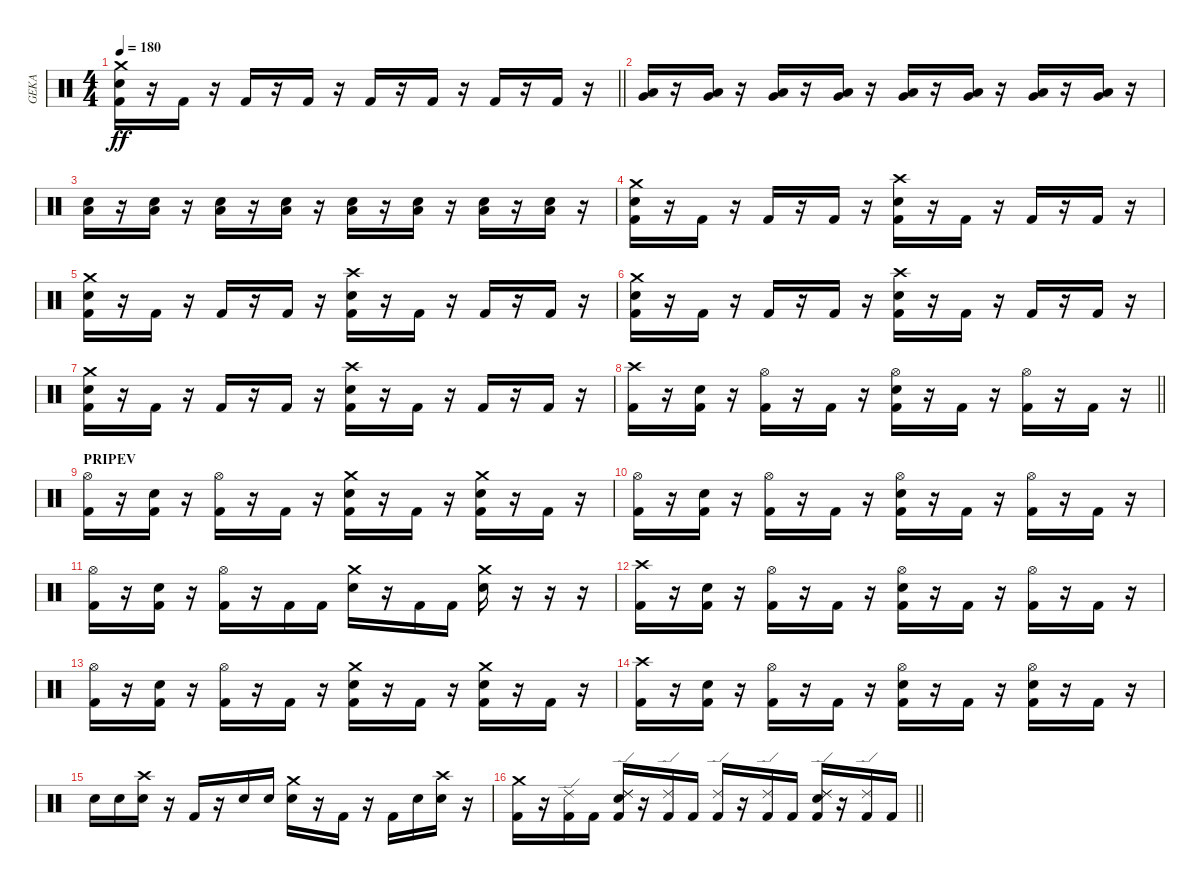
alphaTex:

\track ("GEKA" "GEKA") {instrument percussion}
\staff {score}
\articulation defaults
\ts (4 4)
\tempo 180
\clef neutral
\barLineRight lightlight
\ks c
("Crash medium (hit)" "Snare (hit) 2" "Kick (hit) 2").16{dy ff} r.16 "Kick (hit) 2".16 r.16 "Kick (hit) 2".16 r.16 "Kick (hit) 2".16 r.16 "Kick (hit) 2".16 r.16 "Kick (hit) 2".16 r.16 "Kick (hit) 2".16 r.16 "Kick (hit) 2".16 r.16 |
("Low Floor Tom (hit)" "Very Low Tom (hit)").16 r.16 ("Low Floor Tom (hit)" "Very Low Tom (hit)").16 r.16 ("Low Floor Tom (hit)" "Very Low Tom (hit)").16 r.16 ("Low Floor Tom (hit)" "Very Low Tom (hit)").16 r.16 ("Low Floor Tom (hit)" "Very Low Tom (hit)").16 r.16 ("Low Floor Tom (hit)" "Very Low Tom (hit)").16 r.16 ("Low Floor Tom (hit)" "Very Low Tom (hit)").16 r.16 ("Low Floor Tom (hit)" "Very Low Tom (hit)").16 r.16 |
("Snare (hit) 2" "Low Floor Tom (hit)").16 r.16 ("Snare (hit) 2" "Low Floor Tom (hit)").16 r.16 ("Snare (hit) 2" "Low Floor Tom (hit)").16 r.16 ("Snare (hit) 2" "Low Floor Tom (hit)").16 r.16 ("Snare (hit) 2" "Low Floor Tom (hit)").16 r.16 ("Snare (hit) 2" "Low Floor Tom (hit)").16 r.16 ("Snare (hit) 2" "Low Floor Tom (hit)").16 r.16 ("Snare (hit) 2" "Low Floor Tom (hit)").16 r.16 |
("Crash medium (hit)" "Snare (hit) 2" "Kick (hit) 2").16 r.16 "Kick (hit) 2".16 r.16 "Kick (hit) 2".16 r.16 "Kick (hit) 2".16 r.16 ("Crash high (hit)" "Snare (hit) 2" "Kick (hit) 2").16 r.16 "Kick (hit) 2".16 r.16 "Kick (hit) 2".16 r.16 "Kick (hit) 2".16 r.16 |
("Crash medium (hit)" "Snare (hit) 2" "Kick (hit) 2").16 r.16 "Kick (hit) 2".16 r.16 "Kick (hit) 2".16 r.16 "Kick (hit) 2".16 r.16 ("Crash high (hit)" "Snare (hit) 2" "Kick (hit) 2").16 r.16 "Kick (hit) 2".16 r.16 "Kick (hit) 2".16 r.16 "Kick (hit) 2".16 r.16 |
("Crash medium (hit)" "Snare (hit) 2" "Kick (hit) 2").16 r.16 "Kick (hit) 2".16 r.16 "Kick (hit) 2".16 r.16 "Kick (hit) 2".16 r.16 ("Crash high (hit)" "Snare (hit) 2" "Kick (hit) 2").16 r.16 "Kick (hit) 2".16 r.16 "Kick (hit) 2".16 r.16 "Kick (hit) 2".16 r.16 |
("Crash medium (hit)" "Snare (hit) 2" "Kick (hit) 2").16 r.16 "Kick (hit) 2".16 r.16 "Kick (hit) 2".16 r.16 "Kick (hit) 2".16 r.16 ("Crash high (hit)" "Snare (hit) 2" "Kick (hit) 2").16 r.16 "Kick (hit) 2".16 r.16 "Kick (hit) 2".16 r.16 "Kick (hit) 2".16 r.16 |
\barLineRight lightlight
("Crash high (hit)" "Kick (hit) 2").16 r.16 ("Snare (hit) 2" "Kick (hit) 2").16 r.16 ("Hi-Hat (open)" "Kick (hit) 2").16 r.16 "Kick (hit) 2".16 r.16 ("Hi-Hat (open)" "Snare (hit) 2" "Kick (hit) 2").16 r.16 "Kick (hit) 2".16 r.16 ("Hi-Hat (open)" "Kick (hit) 2").16 r.16 "Kick (hit) 2".16 r.16 |
\section ("" "PRIPEV")
("Hi-Hat (open)" "Kick (hit) 2").16 r.16 ("Snare (hit) 2" "Kick (hit) 2").16 r.16 ("Hi-Hat (open)" "Kick (hit) 2").16 r.16 "Kick (hit) 2".16 r.16 ("Crash medium (hit)" "Snare (hit) 2" "Kick (hit) 2").16 r.16 "Kick (hit) 2".16 r.16 ("Crash medium (hit)" "Snare (hit) 2" "Kick (hit) 2").16 r.16 "Kick (hit) 2".16 r.16 |
("Hi-Hat (open)" "Kick (hit) 2").16 r.16 ("Snare (hit) 2" "Kick (hit) 2").16 r.16 ("Hi-Hat (open)" "Kick (hit) 2").16 r.16 "Kick (hit) 2".16 r.16 ("Hi-Hat (open)" "Snare (hit) 2" "Kick (hit) 2").16 r.16 "Kick (hit) 2".16 r.16 ("Hi-Hat (open)" "Kick (hit) 2").16 r.16 "Kick (hit) 2".16 r.16 |
("Hi-Hat (open)" "Kick (hit) 2").16 r.16 ("Snare (hit) 2" "Kick (hit) 2").16 r.16 ("Hi-Hat (open)" "Kick (hit) 2").16 r.16 "Kick (hit) 2".16 "Kick (hit) 2".16 ("Crash medium (hit)" "Snare (hit) 2").16 r.16 "Kick (hit) 2".16 "Kick (hit) 2".16 ("Crash medium (hit)" "Snare (hit) 2").16 r.16 r.16 r.16 |
("Crash high (hit)" "Kick (hit) 2").16 r.16 ("Snare (hit) 2" "Kick (hit) 2").16 r.16 ("Hi-Hat (open)" "Kick (hit) 2").16 r.16 "Kick (hit) 2".16 r.16 ("Hi-Hat (open)" "Snare (hit) 2" "Kick (hit) 2").16 r.16 "Kick (hit) 2".16 r.16 ("Hi-Hat (open)" "Kick (hit) 2").16 r.16 "Kick (hit) 2".16 r.16 |
("Hi-Hat (open)" "Kick (hit) 2").16 r.16 ("Snare (hit) 2" "Kick (hit) 2").16 r.16 ("Hi-Hat (open)" "Kick (hit) 2").16 r.16 "Kick (hit) 2".16 r.16 ("Crash medium (hit)" "Snare (hit) 2" "Kick (hit) 2").16 r.16 "Kick (hit) 2".16 r.16 ("Crash medium (hit)" "Snare (hit) 2" "Kick (hit) 2").16 r.16 "Kick (hit) 2".16 r.16 |
("Crash high (hit)" "Kick (hit) 2").16 r.16 ("Snare (hit) 2" "Kick (hit) 2").16 r.16 ("Hi-Hat (open)" "Kick (hit) 2").16 r.16 "Kick (hit) 2".16 r.16 ("Hi-Hat (open)" "Snare (hit) 2" "Kick (hit) 2").16 r.16 "Kick (hit) 2".16 r.16 ("Hi-Hat (open)" "Snare (hit) 2" "Kick (hit) 2").16 r.16 "Kick (hit) 2".16 r.16 |
"Snare (hit) 2".16 "Snare (hit) 2".16 ("Crash high (hit)" "Snare (hit) 2").16 r.16 "Kick (hit) 2".16 r.16 "Snare (hit) 2".16 "Snare (hit) 2".16 ("Crash medium (hit)" "Snare (hit) 2").16 r.16 "Kick (hit) 2".16 r.16 "Kick (hit) 2".16 "Snare (hit) 2".16 ("Crash high (hit)" "Snare (hit) 2").16 r.16 |
\barLineRight lightlight
("Crash medium (hit)" "Kick (hit) 2").16 r.16 ("Ride (edge) 2" "Kick (hit) 2").16 "Kick (hit) 2".16 ("Ride (edge) 2" "Snare (hit) 2" "Kick (hit) 2" "Ride (edge) 2").16 r.16 ("Ride (edge) 2" "Kick (hit) 2").16 "Kick (hit) 2".16 ("Ride (edge) 2" "Kick (hit) 2").16 r.16 ("Ride (edge) 2" "Kick (hit) 2").16 "Kick (hit) 2".16 ("Ride (edge) 2" "Snare (hit) 2" "Kick (hit) 2" "Ride (edge) 2").16 r.16 ("Ride (edge) 2" "Kick (hit) 2").16 "Kick (hit) 2".16
